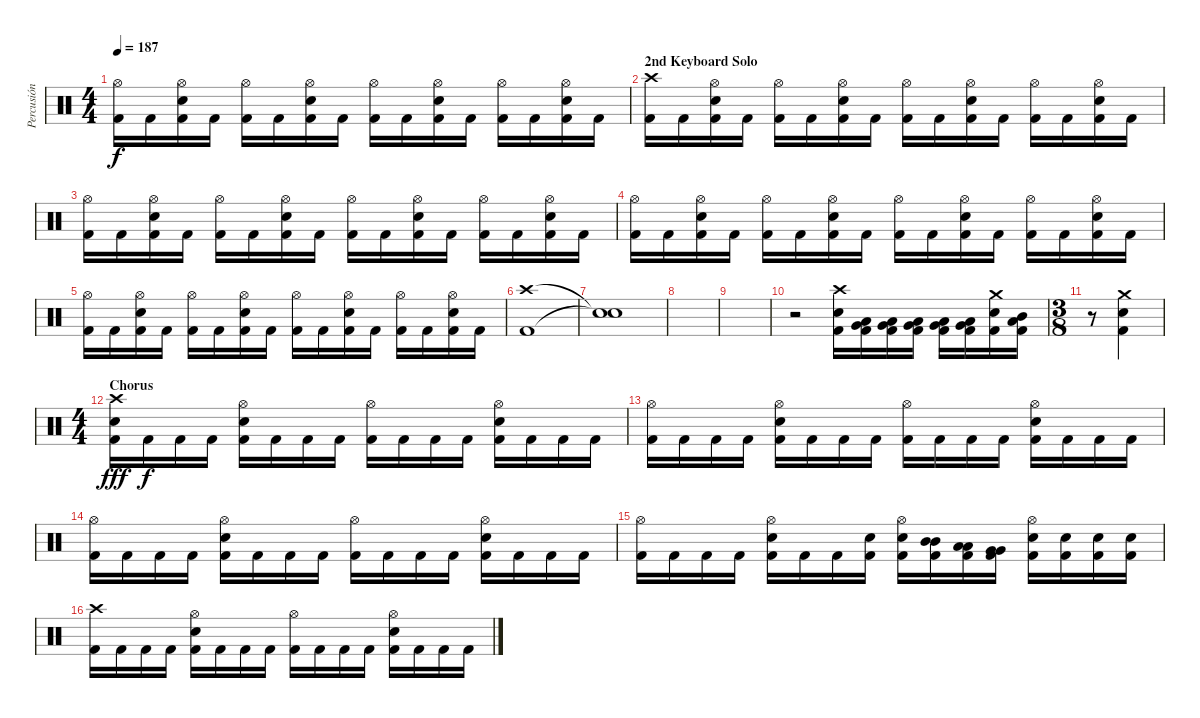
\track ("Percusión" "Percusión") {instrument percussion}
\staff {score}
\articulation defaults
\ts (4 4)
\tempo 187
\clef neutral
\ks c
("Hi-Hat (open)" "Kick (hit) 2").16{dy f} "Kick (hit) 2".16 ("Hi-Hat (open)" "Electric Snare (hit)" "Kick (hit) 2").16 "Kick (hit) 2".16 ("Hi-Hat (open)" "Kick (hit) 2").16 "Kick (hit) 2".16 ("Hi-Hat (open)" "Electric Snare (hit)" "Kick (hit) 2").16 "Kick (hit) 2".16 ("Hi-Hat (open)" "Kick (hit) 2").16 "Kick (hit) 2".16 ("Hi-Hat (open)" "Electric Snare (hit)" "Kick (hit) 2").16 "Kick (hit) 2".16 ("Hi-Hat (open)" "Kick (hit) 2").16 "Kick (hit) 2".16 ("Hi-Hat (open)" "Electric Snare (hit)" "Kick (hit) 2").16 "Kick (hit) 2".16 |
\section ("" "2nd Keyboard Solo")
("Crash high (hit)" "Kick (hit) 2").16 "Kick (hit) 2".16 ("Hi-Hat (open)" "Electric Snare (hit)" "Kick (hit) 2").16 "Kick (hit) 2".16 ("Hi-Hat (open)" "Kick (hit) 2").16 "Kick (hit) 2".16 ("Hi-Hat (open)" "Electric Snare (hit)" "Kick (hit) 2").16 "Kick (hit) 2".16 ("Hi-Hat (open)" "Kick (hit) 2").16 "Kick (hit) 2".16 ("Hi-Hat (open)" "Electric Snare (hit)" "Kick (hit) 2").16 "Kick (hit) 2".16 ("Hi-Hat (open)" "Kick (hit) 2").16 "Kick (hit) 2".16 ("Hi-Hat (open)" "Electric Snare (hit)" "Kick (hit) 2").16 "Kick (hit) 2".16 |
("Hi-Hat (open)" "Kick (hit) 2").16 "Kick (hit) 2".16 ("Hi-Hat (open)" "Electric Snare (hit)" "Kick (hit) 2").16 "Kick (hit) 2".16 ("Hi-Hat (open)" "Kick (hit) 2").16 "Kick (hit) 2".16 ("Hi-Hat (open)" "Electric Snare (hit)" "Kick (hit) 2").16 "Kick (hit) 2".16 ("Hi-Hat (open)" "Kick (hit) 2").16 "Kick (hit) 2".16 ("Hi-Hat (open)" "Electric Snare (hit)" "Kick (hit) 2").16 "Kick (hit) 2".16 ("Hi-Hat (open)" "Kick (hit) 2").16 "Kick (hit) 2".16 ("Hi-Hat (open)" "Electric Snare (hit)" "Kick (hit) 2").16 "Kick (hit) 2".16 |
("Hi-Hat (open)" "Kick (hit) 2").16 "Kick (hit) 2".16 ("Hi-Hat (open)" "Electric Snare (hit)" "Kick (hit) 2").16 "Kick (hit) 2".16 ("Hi-Hat (open)" "Kick (hit) 2").16 "Kick (hit) 2".16 ("Hi-Hat (open)" "Electric Snare (hit)" "Kick (hit) 2").16 "Kick (hit) 2".16 ("Hi-Hat (open)" "Kick (hit) 2").16 "Kick (hit) 2".16 ("Hi-Hat (open)" "Electric Snare (hit)" "Kick (hit) 2").16 "Kick (hit) 2".16 ("Hi-Hat (open)" "Kick (hit) 2").16 "Kick (hit) 2".16 ("Hi-Hat (open)" "Electric Snare (hit)" "Kick (hit) 2").16 "Kick (hit) 2".16 |
("Hi-Hat (open)" "Kick (hit) 2").16 "Kick (hit) 2".16 ("Hi-Hat (open)" "Electric Snare (hit)" "Kick (hit) 2").16 "Kick (hit) 2".16 ("Hi-Hat (open)" "Kick (hit) 2").16 "Kick (hit) 2".16 ("Hi-Hat (open)" "Electric Snare (hit)" "Kick (hit) 2").16 "Kick (hit) 2".16 ("Hi-Hat (open)" "Kick (hit) 2").16 "Kick (hit) 2".16 ("Hi-Hat (open)" "Electric Snare (hit)" "Kick (hit) 2").16 "Kick (hit) 2".16 ("Hi-Hat (open)" "Kick (hit) 2").16 "Kick (hit) 2".16 ("Hi-Hat (open)" "Electric Snare (hit)" "Kick (hit) 2").16 "Kick (hit) 2".16 |
("Crash high (hit)" "Kick (hit) 2").1 |
("Snare (hit)"{t} "Snare (hit)"{t}).1 |
|
|
r.2 ("Crash high (hit)" "Electric Snare (hit)" "Kick (hit) 2").16 ("Very Low Tom (hit)" "Low Tom (hit)" "Kick (hit) 2").16 ("Very Low Tom (hit)" "Low Tom (hit)" "Kick (hit) 2").16 ("Very Low Tom (hit)" "Low Tom (hit)" "Kick (hit) 2").16 ("Very Low Tom (hit)" "Low Tom (hit)" "Kick (hit) 2").16 ("Very Low Tom (hit)" "Low Tom (hit)" "Kick (hit) 2").16 ("Crash medium (hit)" "Electric Snare (hit)" "Kick (hit) 2").16 ("Mid Tom (hit)" "Low Tom (hit)" "Kick (hit) 2").16 |
\ts (3 8)
r.8 ("Crash medium (hit)" "Electric Snare (hit)" "Kick (hit) 2").4 |
\ts (4 4)
\section ("" "Chorus")
("Crash high (hit)" "Electric Snare (hit)" "Kick (hit) 2").16{dy fff} "Kick (hit) 2".16{dy f} "Kick (hit) 2".16 "Kick (hit) 2".16 ("Hi-Hat (open)" "Electric Snare (hit)" "Kick (hit) 2").16 "Kick (hit) 2".16 "Kick (hit) 2".16 "Kick (hit) 2".16 ("Hi-Hat (open)" "Kick (hit) 2").16 "Kick (hit) 2".16 "Kick (hit) 2".16 "Kick (hit) 2".16 ("Hi-Hat (open)" "Electric Snare (hit)" "Kick (hit) 2").16 "Kick (hit) 2".16 "Kick (hit) 2".16 "Kick (hit) 2".16 |
("Hi-Hat (open)" "Kick (hit) 2").16 "Kick (hit) 2".16 "Kick (hit) 2".16 "Kick (hit) 2".16 ("Hi-Hat (open)" "Electric Snare (hit)" "Kick (hit) 2").16 "Kick (hit) 2".16 "Kick (hit) 2".16 "Kick (hit) 2".16 ("Hi-Hat (open)" "Kick (hit) 2").16 "Kick (hit) 2".16 "Kick (hit) 2".16 "Kick (hit) 2".16 ("Hi-Hat (open)" "Electric Snare (hit)" "Kick (hit) 2").16 "Kick (hit) 2".16 "Kick (hit) 2".16 "Kick (hit) 2".16 |
("Hi-Hat (open)" "Kick (hit) 2").16 "Kick (hit) 2".16 "Kick (hit) 2".16 "Kick (hit) 2".16 ("Hi-Hat (open)" "Electric Snare (hit)" "Kick (hit) 2").16 "Kick (hit) 2".16 "Kick (hit) 2".16 "Kick (hit) 2".16 ("Hi-Hat (open)" "Kick (hit) 2").16 "Kick (hit) 2".16 "Kick (hit) 2".16 "Kick (hit) 2".16 ("Hi-Hat (open)" "Electric Snare (hit)" "Kick (hit) 2").16 "Kick (hit) 2".16 "Kick (hit) 2".16 "Kick (hit) 2".16 |
("Hi-Hat (open)" "Kick (hit) 2").16 "Kick (hit) 2".16 "Kick (hit) 2".16 "Kick (hit) 2".16 ("Hi-Hat (open)" "Electric Snare (hit)" "Kick (hit) 2").16 "Kick (hit) 2".16 "Kick (hit) 2".16 ("Electric Snare (hit)" "Kick (hit) 2").16 ("Hi-Hat (open)" "Electric Snare (hit)" "Kick (hit) 2").16 ("Mid Tom (hit)" "Mid Tom (hit)" "Kick (hit) 2").16 ("Low Tom (hit)" "Low Tom (hit)" "Kick (hit) 2").16 ("Very Low Tom (hit)" "Very Low Tom (hit)" "Kick (hit) 2").16 ("Hi-Hat (open)" "Electric Snare (hit)" "Kick (hit) 2").16 ("Electric Snare (hit)" "Kick (hit) 2").16 ("Electric Snare (hit)" "Kick (hit) 2").16 ("Electric Snare (hit)" "Kick (hit) 2").16 |
("Crash high (hit)" "Kick (hit) 2").16 "Kick (hit) 2".16 "Kick (hit) 2".16 "Kick (hit) 2".16 ("Hi-Hat (open)" "Electric Snare (hit)" "Kick (hit) 2").16 "Kick (hit) 2".16 "Kick (hit) 2".16 "Kick (hit) 2".16 ("Hi-Hat (open)" "Kick (hit) 2").16 "Kick (hit) 2".16 "Kick (hit) 2".16 "Kick (hit) 2".16 ("Hi-Hat (open)" "Electric Snare (hit)" "Kick (hit) 2").16 "Kick (hit) 2".16 "Kick (hit) 2".16 "Kick (hit) 2".16
